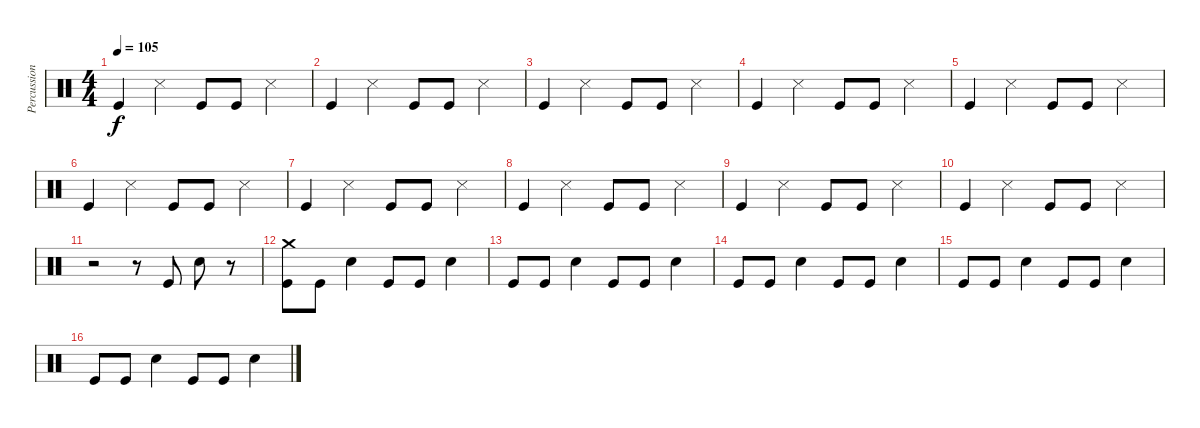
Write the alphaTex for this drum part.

\track ("Percussions" "Percussion") {instrument percussion}
\staff {score}
\articulation defaults
\ts (4 4)
\tempo 105
\clef neutral
\ks c "Kick (hit)".4{dy f} "Metronome (hit)".4 "Kick (hit)".8 "Kick (hit)".8 "Metronome (hit)".4
|
"Kick (hit)".4 "Metronome (hit)".4 "Kick (hit)".8 "Kick (hit)".8 "Metronome (hit)".4 |
"Kick (hit)".4 "Metronome (hit)".4 "Kick (hit)".8 "Kick (hit)".8 "Metronome (hit)".4 |
"Kick (hit)".4 "Metronome (hit)".4 "Kick (hit)".8 "Kick (hit)".8 "Metronome (hit)".4 |
"Kick (hit)".4 "Metronome (hit)".4 "Kick (hit)".8 "Kick (hit)".8 "Metronome (hit)".4 |
"Kick (hit)".4 "Metronome (hit)".4 "Kick (hit)".8 "Kick (hit)".8 "Metronome (hit)".4 |
"Kick (hit)".4 "Metronome (hit)".4 "Kick (hit)".8 "Kick (hit)".8 "Metronome (hit)".4 |
"Kick (hit)".4 "Metronome (hit)".4 "Kick (hit)".8 "Kick (hit)".8 "Metronome (hit)".4 |
"Kick (hit)".4 "Metronome (hit)".4 "Kick (hit)".8 "Kick (hit)".8 "Metronome (hit)".4 |
"Kick (hit)".4 "Metronome (hit)".4 "Kick (hit)".8 "Kick (hit)".8 "Metronome (hit)".4 |
r.2 r.8 "Kick (hit)".8 "Electric Snare (hit)".8 r.8 |
("Kick (hit)" "Crash medium (hit)").8 "Kick (hit)".8 "Electric Snare (hit)".4 "Kick (hit)".8 "Kick (hit)".8 "Electric Snare (hit)".4 |
"Kick (hit)".8 "Kick (hit)".8 "Electric Snare (hit)".4 "Kick (hit)".8 "Kick (hit)".8 "Electric Snare (hit)".4 |
"Kick (hit)".8 "Kick (hit)".8 "Electric Snare (hit)".4 "Kick (hit)".8 "Kick (hit)".8 "Electric Snare (hit)".4 |
"Kick (hit)".8 "Kick (hit)".8 "Electric Snare (hit)".4 "Kick (hit)".8 "Kick (hit)".8 "Electric Snare (hit)".4 |
"Kick (hit)".8 "Kick (hit)".8 "Electric Snare (hit)".4 "Kick (hit)".8 "Kick (hit)".8 "Electric Snare (hit)".4
